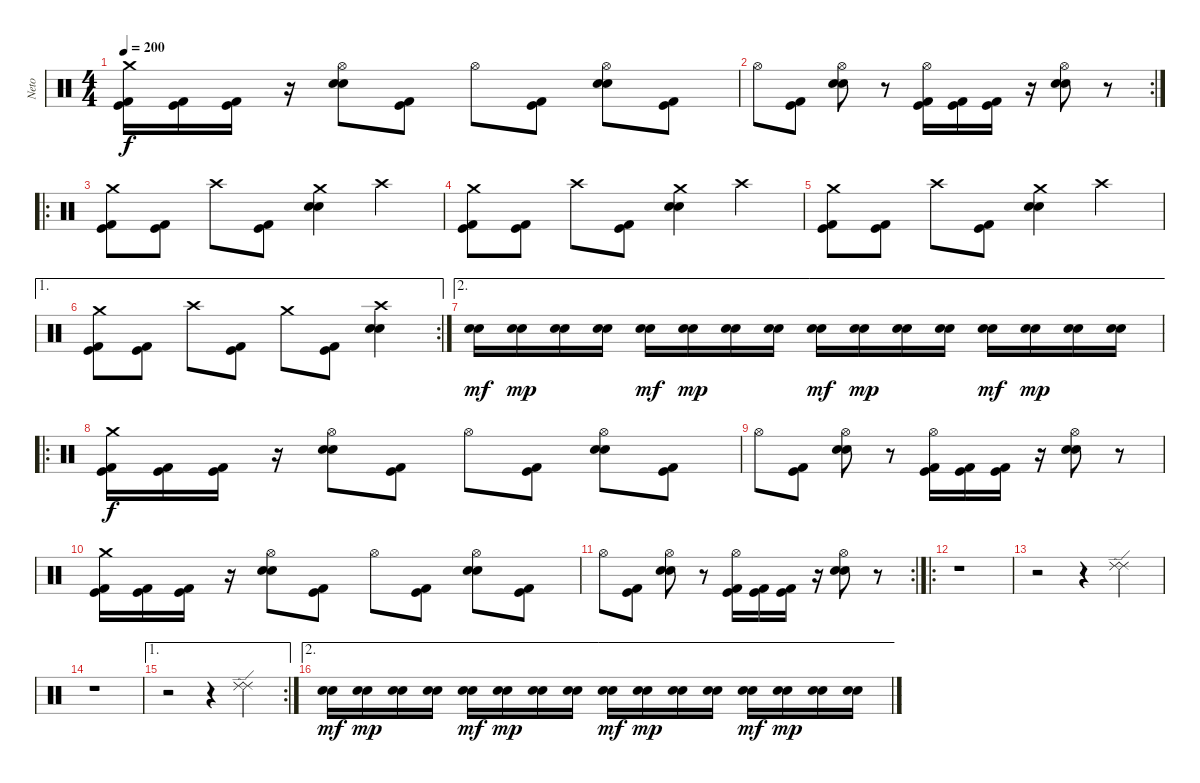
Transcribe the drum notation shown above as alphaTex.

\track ("Neto" "Neto") {instrument percussion}
\staff {score}
\articulation defaults
\ts (4 4)
\tempo 200
\clef neutral
\ks c
("Crash medium (hit)" "Kick (hit)" "Kick (hit) 2").16{dy f} ("Kick (hit)" "Kick (hit) 2").16 ("Kick (hit)" "Kick (hit) 2").16 r.16 ("Hi-Hat (open)" "Snare (hit) 2" "Snare (hit) 2").8 ("Kick (hit) 2" "Kick (hit)").8 "Hi-Hat (open)".8 ("Kick (hit)" "Kick (hit) 2").8 ("Hi-Hat (open)" "Snare (hit) 2" "Snare (hit) 2").8 ("Kick (hit) 2" "Kick (hit)").8 |
\rc 2 "Hi-Hat (open)".8
("Kick (hit)" "Kick (hit) 2").8 ("Hi-Hat (open)" "Snare (hit) 2" "Snare (hit) 2").8 r.8 ("Hi-Hat (open)" "Kick (hit)" "Kick (hit) 2").16 ("Kick (hit)" "Kick (hit) 2").16 ("Kick (hit)" "Kick (hit) 2").16 r.16 ("Hi-Hat (open)" "Snare (hit) 2" "Snare (hit) 2").8 r.8 |
\ro
("Crash medium (hit)" "Kick (hit)" "Kick (hit) 2").8 ("Kick (hit)" "Kick (hit) 2").8 "Crash high (hit)".8 ("Kick (hit)" "Kick (hit) 2").8 ("Crash medium (hit)" "Snare (hit) 2" "Snare (hit) 2").4 "Crash high (hit)".4 |
("Crash medium (hit)" "Kick (hit)" "Kick (hit) 2").8 ("Kick (hit)" "Kick (hit) 2").8 "Crash high (hit)".8 ("Kick (hit)" "Kick (hit) 2").8 ("Crash medium (hit)" "Snare (hit) 2" "Snare (hit) 2").4 "Crash high (hit)".4 |
("Crash medium (hit)" "Kick (hit)" "Kick (hit) 2").8 ("Kick (hit)" "Kick (hit) 2").8 "Crash high (hit)".8 ("Kick (hit)" "Kick (hit) 2").8 ("Crash medium (hit)" "Snare (hit) 2" "Snare (hit) 2").4 "Crash high (hit)".4 |
\ae 1
\rc 2
("Crash medium (hit)" "Kick (hit)" "Kick (hit) 2").8 ("Kick (hit)" "Kick (hit) 2").8 "Crash high (hit)".8 ("Kick (hit)" "Kick (hit) 2").8 "Crash medium (hit)".8 ("Kick (hit)" "Kick (hit) 2").8 ("Crash high (hit)" "Snare (hit) 2" "Snare (hit) 2").4 |
\ae 2
("Snare (hit) 2" "Snare (hit) 2").16{dy mf} ("Snare (hit) 2" "Snare (hit) 2").16{dy mp} ("Snare (hit) 2" "Snare (hit) 2").16 ("Snare (hit) 2" "Snare (hit) 2").16 ("Snare (hit) 2" "Snare (hit) 2").16{dy mf} ("Snare (hit) 2" "Snare (hit) 2").16{dy mp} ("Snare (hit) 2" "Snare (hit) 2").16 ("Snare (hit) 2" "Snare (hit) 2").16 ("Snare (hit) 2" "Snare (hit) 2").16{dy mf} ("Snare (hit) 2" "Snare (hit) 2").16{dy mp} ("Snare (hit) 2" "Snare (hit) 2").16 ("Snare (hit) 2" "Snare (hit) 2").16 ("Snare (hit) 2" "Snare (hit) 2").16{dy mf} ("Snare (hit) 2" "Snare (hit) 2").16{dy mp} ("Snare (hit) 2" "Snare (hit) 2").16 ("Snare (hit) 2" "Snare (hit) 2").16 |
\ro
("Crash medium (hit)" "Kick (hit)" "Kick (hit) 2").16{dy f} ("Kick (hit)" "Kick (hit) 2").16 ("Kick (hit)" "Kick (hit) 2").16 r.16 ("Hi-Hat (open)" "Snare (hit) 2" "Snare (hit) 2").8 ("Kick (hit) 2" "Kick (hit)").8 "Hi-Hat (open)".8 ("Kick (hit)" "Kick (hit) 2").8 ("Hi-Hat (open)" "Snare (hit) 2" "Snare (hit) 2").8 ("Kick (hit) 2" "Kick (hit)").8 |
"Hi-Hat (open)".8 ("Kick (hit)" "Kick (hit) 2").8 ("Hi-Hat (open)" "Snare (hit) 2" "Snare (hit) 2").8 r.8 ("Hi-Hat (open)" "Kick (hit)" "Kick (hit) 2").16 ("Kick (hit)" "Kick (hit) 2").16 ("Kick (hit)" "Kick (hit) 2").16 r.16 ("Hi-Hat (open)" "Snare (hit) 2" "Snare (hit) 2").8 r.8 |
("Crash medium (hit)" "Kick (hit)" "Kick (hit) 2").16 ("Kick (hit)" "Kick (hit) 2").16 ("Kick (hit)" "Kick (hit) 2").16 r.16 ("Hi-Hat (open)" "Snare (hit) 2" "Snare (hit) 2").8 ("Kick (hit) 2" "Kick (hit)").8 "Hi-Hat (open)".8 ("Kick (hit)" "Kick (hit) 2").8 ("Hi-Hat (open)" "Snare (hit) 2" "Snare (hit) 2").8 ("Kick (hit) 2" "Kick (hit)").8 |
\rc 2 "Hi-Hat (open)".8
("Kick (hit)" "Kick (hit) 2").8 ("Hi-Hat (open)" "Snare (hit) 2" "Snare (hit) 2").8 r.8 ("Hi-Hat (open)" "Kick (hit)" "Kick (hit) 2").16 ("Kick (hit)" "Kick (hit) 2").16 ("Kick (hit)" "Kick (hit) 2").16 r.16 ("Hi-Hat (open)" "Snare (hit) 2" "Snare (hit) 2").8 r.8 |
\ro
r.1 |
r.2 r.4 ("Ride (edge) 2" "Ride (edge) 2").4 |
r.1 |
\ae 1
\rc 2
r.2 r.4 ("Ride (edge) 2" "Ride (edge) 2").4 |
\ae 2
("Snare (hit) 2" "Snare (hit) 2").16{dy mf} ("Snare (hit) 2" "Snare (hit) 2").16{dy mp} ("Snare (hit) 2" "Snare (hit) 2").16 ("Snare (hit) 2" "Snare (hit) 2").16 ("Snare (hit) 2" "Snare (hit) 2").16{dy mf} ("Snare (hit) 2" "Snare (hit) 2").16{dy mp} ("Snare (hit) 2" "Snare (hit) 2").16 ("Snare (hit) 2" "Snare (hit) 2").16 ("Snare (hit) 2" "Snare (hit) 2").16{dy mf} ("Snare (hit) 2" "Snare (hit) 2").16{dy mp} ("Snare (hit) 2" "Snare (hit) 2").16 ("Snare (hit) 2" "Snare (hit) 2").16 ("Snare (hit) 2" "Snare (hit) 2").16{dy mf} ("Snare (hit) 2" "Snare (hit) 2").16{dy mp} ("Snare (hit) 2" "Snare (hit) 2").16 ("Snare (hit) 2" "Snare (hit) 2").16
